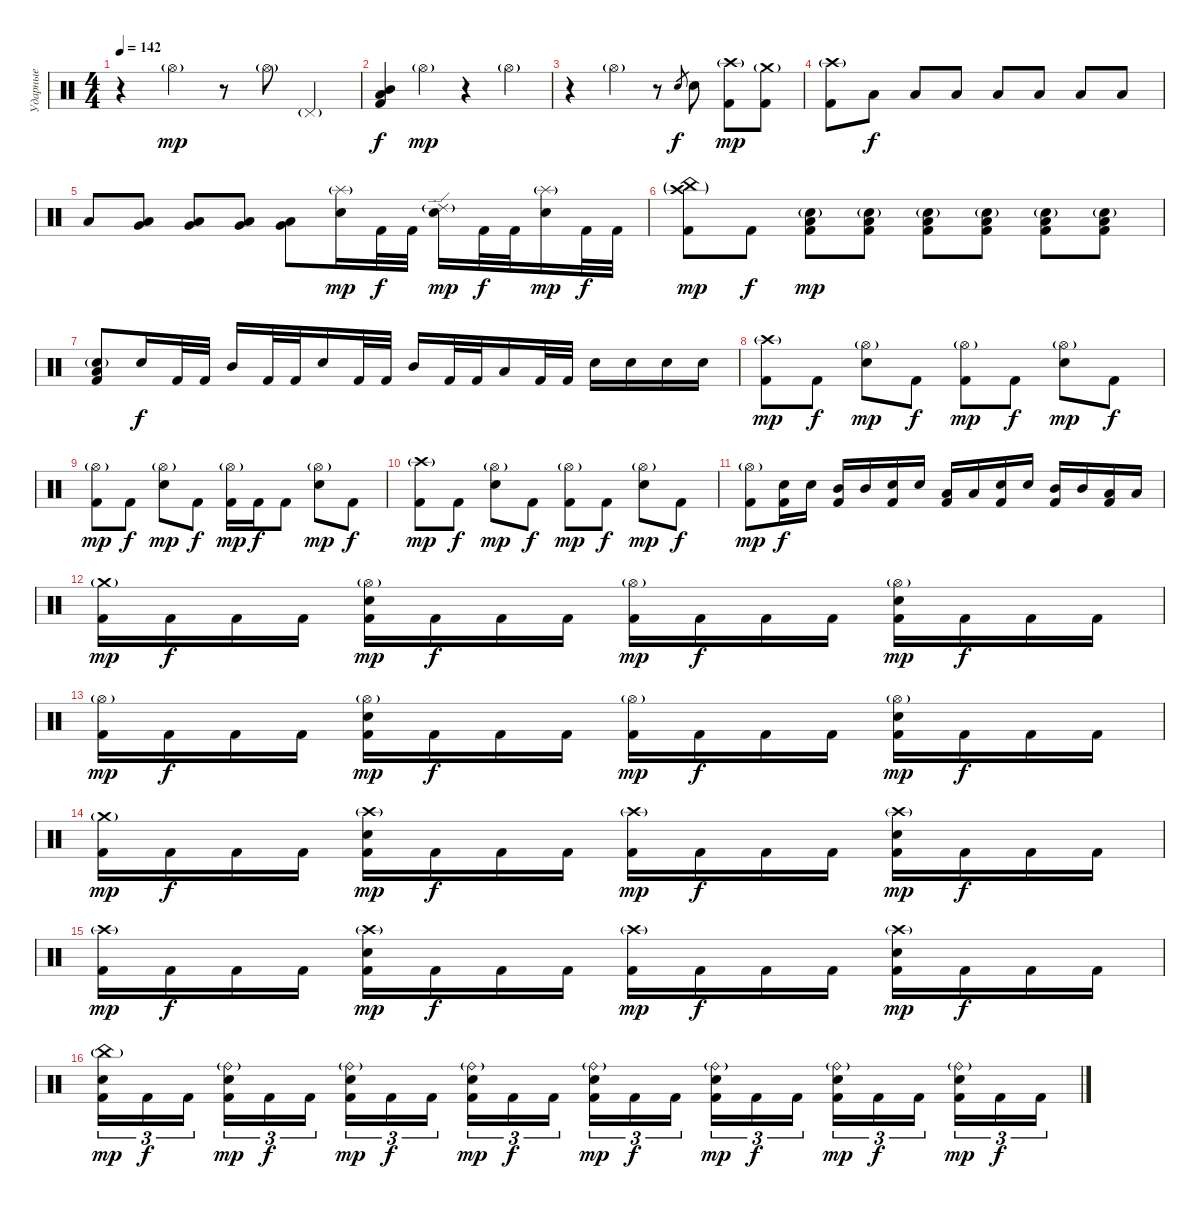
\track ("Ударные" "Ударные") {instrument percussion}
\staff {score}
\articulation defaults
\ts (4 4)
\tempo 142
\clef neutral
\ks c
r.4{dy mp} "Hi-Hat (open)"{g}.4 r.8 "Hi-Hat (open)"{g}.8 "Pedal Hi-Hat (hit)"{g}.4 |
("Mid Tom (hit)" "Low Tom (hit)" "Kick (hit) 2").4{dy f} "Hi-Hat (open)"{g}.4{dy mp} r.4 "Hi-Hat (open)"{g}.4 |
r.4 "Hi-Hat (open)"{g}.4 r.8 "Electric Snare (hit)".8{gr dy f} "Electric Snare (hit)".8 ("Crash high (hit)"{g} "Kick (hit) 2").8{dy mp} ("Crash medium (hit)"{g} "Kick (hit) 2").8 |
("Crash high (hit)"{g} "Kick (hit) 2").8 "Low Tom (hit)".8{dy f} "Low Tom (hit)".8 "Low Tom (hit)".8 "Low Tom (hit)".8 "Low Tom (hit)".8 "Low Tom (hit)".8 "Low Tom (hit)".8 |
"Low Tom (hit)".8 ("Very Low Tom (hit)" "Low Tom (hit)").8 ("Very Low Tom (hit)" "Low Tom (hit)").8 ("Very Low Tom (hit)" "Low Tom (hit)").8 ("Very Low Tom (hit)" "Low Tom (hit)").8 ("Splash (hit)"{g} "Electric Snare (hit)").16{dy mp} "Kick (hit) 2".32{dy f} "Kick (hit) 2".32 ("Ride (edge) 2"{g} "Electric Snare (hit)").16{dy mp} "Kick (hit) 2".32{dy f} "Kick (hit) 2".32 ("Splash (hit)"{g} "Electric Snare (hit)").16{dy mp} "Kick (hit) 2".32{dy f} "Kick (hit) 2".32 |
("China (hit)"{g} "Crash high (hit)"{g} "Kick (hit) 2").8{dy mp} "Kick (hit) 2".8{dy f} ("Low Tom (hit)" "Electric Snare (hit)"{g} "Kick (hit) 2").8{dy mp} ("Low Tom (hit)" "Electric Snare (hit)"{g} "Kick (hit) 2").8 ("Low Tom (hit)" "Electric Snare (hit)"{g} "Kick (hit) 2").8 ("Low Tom (hit)" "Electric Snare (hit)"{g} "Kick (hit) 2").8 ("Low Tom (hit)" "Electric Snare (hit)"{g} "Kick (hit) 2").8 ("Low Tom (hit)" "Electric Snare (hit)"{g} "Kick (hit) 2").8 |
("Low Tom (hit)" "Electric Snare (hit)"{g} "Kick (hit) 2").8 "Electric Snare (hit)".16{dy f} "Kick (hit) 2".32 "Kick (hit) 2".32 "Mid Tom (hit)".16 "Kick (hit) 2".32 "Kick (hit) 2".32 "Electric Snare (hit)".16 "Kick (hit) 2".32 "Kick (hit) 2".32 "Mid Tom (hit)".16 "Kick (hit) 2".32 "Kick (hit) 2".32 "Low Tom (hit)".16 "Kick (hit) 2".32 "Kick (hit) 2".32 "Electric Snare (hit)".16 "Electric Snare (hit)".16 "Electric Snare (hit)".16 "Electric Snare (hit)".16 |
("Crash high (hit)"{g} "Kick (hit) 2").8{dy mp} "Kick (hit) 2".8{dy f} ("Hi-Hat (open)"{g} "Electric Snare (hit)").8{dy mp} "Kick (hit) 2".8{dy f} ("Hi-Hat (open)"{g} "Kick (hit) 2").8{dy mp} "Kick (hit) 2".8{dy f} ("Hi-Hat (open)"{g} "Electric Snare (hit)").8{dy mp} "Kick (hit) 2".8{dy f} |
("Hi-Hat (open)"{g} "Kick (hit) 2").8{dy mp} "Kick (hit) 2".8{dy f} ("Hi-Hat (open)"{g} "Electric Snare (hit)").8{dy mp} "Kick (hit) 2".8{dy f} ("Hi-Hat (open)"{g} "Kick (hit) 2").16{dy mp} "Kick (hit) 2".16{dy f} "Kick (hit) 2".8 ("Hi-Hat (open)"{g} "Electric Snare (hit)").8{dy mp} "Kick (hit) 2".8{dy f} |
("Crash high (hit)"{g} "Kick (hit) 2").8{dy mp} "Kick (hit) 2".8{dy f} ("Hi-Hat (open)"{g} "Electric Snare (hit)").8{dy mp} "Kick (hit) 2".8{dy f} ("Hi-Hat (open)"{g} "Kick (hit) 2").8{dy mp} "Kick (hit) 2".8{dy f} ("Hi-Hat (open)"{g} "Electric Snare (hit)").8{dy mp} "Kick (hit) 2".8{dy f} |
("Hi-Hat (open)"{g} "Kick (hit) 2").8{dy mp} ("Electric Snare (hit)" "Kick (hit) 2").16{dy f} "Electric Snare (hit)".16 ("Mid Tom (hit)" "Kick (hit) 2").16 "Mid Tom (hit)".16 ("Electric Snare (hit)" "Kick (hit) 2").16 "Electric Snare (hit)".16 ("Low Tom (hit)" "Kick (hit) 2").16 "Low Tom (hit)".16 ("Electric Snare (hit)" "Kick (hit) 2").16 "Electric Snare (hit)".16 ("Mid Tom (hit)" "Kick (hit) 2").16 "Mid Tom (hit)".16 ("Low Tom (hit)" "Kick (hit) 2").16 "Low Tom (hit)".16 |
("Crash medium (hit)"{g} "Kick (hit) 2").16{dy mp} "Kick (hit) 2".16{dy f} "Kick (hit) 2".16 "Kick (hit) 2".16 ("Hi-Hat (open)"{g} "Electric Snare (hit)" "Kick (hit) 2").16{dy mp} "Kick (hit) 2".16{dy f} "Kick (hit) 2".16 "Kick (hit) 2".16 ("Hi-Hat (open)"{g} "Kick (hit) 2").16{dy mp} "Kick (hit) 2".16{dy f} "Kick (hit) 2".16 "Kick (hit) 2".16 ("Hi-Hat (open)"{g} "Electric Snare (hit)" "Kick (hit) 2").16{dy mp} "Kick (hit) 2".16{dy f} "Kick (hit) 2".16 "Kick (hit) 2".16 |
("Hi-Hat (open)"{g} "Kick (hit) 2").16{dy mp} "Kick (hit) 2".16{dy f} "Kick (hit) 2".16 "Kick (hit) 2".16 ("Hi-Hat (open)"{g} "Electric Snare (hit)" "Kick (hit) 2").16{dy mp} "Kick (hit) 2".16{dy f} "Kick (hit) 2".16 "Kick (hit) 2".16 ("Hi-Hat (open)"{g} "Kick (hit) 2").16{dy mp} "Kick (hit) 2".16{dy f} "Kick (hit) 2".16 "Kick (hit) 2".16 ("Hi-Hat (open)"{g} "Electric Snare (hit)" "Kick (hit) 2").16{dy mp} "Kick (hit) 2".16{dy f} "Kick (hit) 2".16 "Kick (hit) 2".16 |
("Crash medium (hit)"{g} "Kick (hit) 2").16{dy mp} "Kick (hit) 2".16{dy f} "Kick (hit) 2".16 "Kick (hit) 2".16 ("Crash high (hit)"{g} "Electric Snare (hit)" "Kick (hit) 2").16{dy mp} "Kick (hit) 2".16{dy f} "Kick (hit) 2".16 "Kick (hit) 2".16 ("Crash high (hit)"{g} "Kick (hit) 2").16{dy mp} "Kick (hit) 2".16{dy f} "Kick (hit) 2".16 "Kick (hit) 2".16 ("Crash high (hit)"{g} "Electric Snare (hit)" "Kick (hit) 2").16{dy mp} "Kick (hit) 2".16{dy f} "Kick (hit) 2".16 "Kick (hit) 2".16 |
("Crash high (hit)"{g} "Kick (hit) 2").16{dy mp} "Kick (hit) 2".16{dy f} "Kick (hit) 2".16 "Kick (hit) 2".16 ("Crash high (hit)"{g} "Electric Snare (hit)" "Kick (hit) 2").16{dy mp} "Kick (hit) 2".16{dy f} "Kick (hit) 2".16 "Kick (hit) 2".16 ("Crash high (hit)"{g} "Kick (hit) 2").16{dy mp} "Kick (hit) 2".16{dy f} "Kick (hit) 2".16 "Kick (hit) 2".16 ("Crash high (hit)"{g} "Electric Snare (hit)" "Kick (hit) 2").16{dy mp} "Kick (hit) 2".16{dy f} "Kick (hit) 2".16 "Kick (hit) 2".16 |
("China (hit)"{g} "Electric Snare (hit)" "Kick (hit) 2").16{tu (3 2) dy mp} "Kick (hit) 2".16{tu (3 2) dy f} "Kick (hit) 2".16{tu (3 2)} ("Ride (bell)"{g} "Electric Snare (hit)" "Kick (hit) 2").16{tu (3 2) dy mp} "Kick (hit) 2".16{tu (3 2) dy f} "Kick (hit) 2".16{tu (3 2)} ("Ride (bell)"{g} "Electric Snare (hit)" "Kick (hit) 2").16{tu (3 2) dy mp} "Kick (hit) 2".16{tu (3 2) dy f} "Kick (hit) 2".16{tu (3 2)} ("Ride (bell)"{g} "Electric Snare (hit)" "Kick (hit) 2").16{tu (3 2) dy mp} "Kick (hit) 2".16{tu (3 2) dy f} "Kick (hit) 2".16{tu (3 2)} ("Ride (bell)"{g} "Electric Snare (hit)" "Kick (hit) 2").16{tu (3 2) dy mp} "Kick (hit) 2".16{tu (3 2) dy f} "Kick (hit) 2".16{tu (3 2)} ("Ride (bell)"{g} "Electric Snare (hit)" "Kick (hit) 2").16{tu (3 2) dy mp} "Kick (hit) 2".16{tu (3 2) dy f} "Kick (hit) 2".16{tu (3 2)} ("Ride (bell)"{g} "Electric Snare (hit)" "Kick (hit) 2").16{tu (3 2) dy mp} "Kick (hit) 2".16{tu (3 2) dy f} "Kick (hit) 2".16{tu (3 2)} ("Ride (bell)"{g} "Electric Snare (hit)" "Kick (hit) 2").16{tu (3 2) dy mp} "Kick (hit) 2".16{tu (3 2) dy f} "Kick (hit) 2".16{tu (3 2)}
